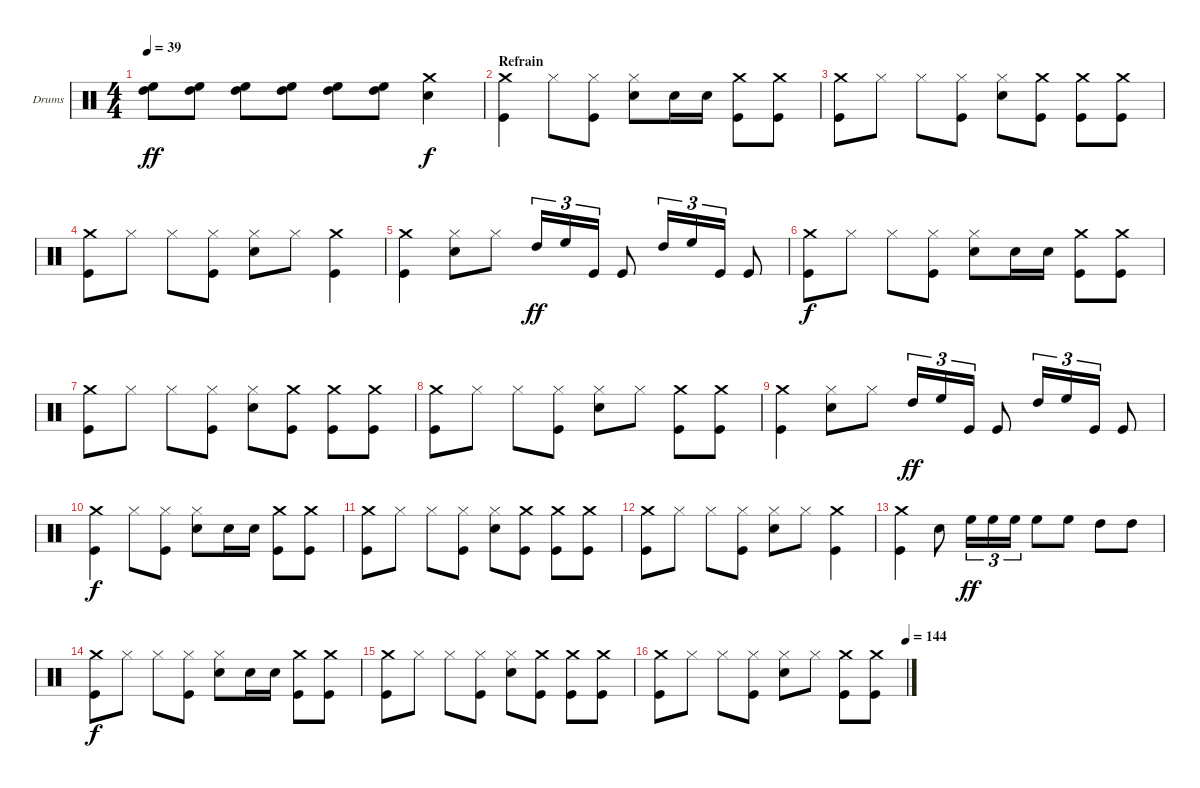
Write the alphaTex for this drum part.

\bracketExtendMode groupsimilarinstruments
\firstSystemTrackNameOrientation horizontal
\otherSystemsTrackNameOrientation horizontal
\track ("Drumkit" "Drums") {instrument percussion}
\staff {score}
\articulation defaults
\ts (4 4)
\tempo 39
\clef neutral
\ks c
("High Tom (hit)" "High Floor Tom (hit)").8{dy ff} ("High Tom (hit)" "High Floor Tom (hit)").8 ("High Tom (hit)" "High Floor Tom (hit)").8 ("High Tom (hit)" "High Floor Tom (hit)").8 ("High Tom (hit)" "High Floor Tom (hit)").8 ("High Tom (hit)" "High Floor Tom (hit)").8 ("Crash medium (hit)" "Snare (hit) 2").4{dy f} |
\section ("" "Refrain")
("Crash medium (hit)" "Kick (hit)").4 "Hi-Hat (closed)".8 ("Hi-Hat (closed)" "Kick (hit)").8 ("Hi-Hat (closed)" "Snare (hit) 2").8 "Snare (hit) 2".16 "Snare (hit) 2".16 ("Crash medium (hit)" "Kick (hit)").8 ("Crash medium (hit)" "Kick (hit)").8 |
("Crash medium (hit)" "Kick (hit)").8 "Hi-Hat (closed)".8 "Hi-Hat (closed)".8 ("Hi-Hat (closed)" "Kick (hit)").8 ("Hi-Hat (closed)" "Snare (hit) 2").8 ("Crash medium (hit)" "Kick (hit)").8 ("Crash medium (hit)" "Kick (hit)").8 ("Crash medium (hit)" "Kick (hit)").8 |
("Crash medium (hit)" "Kick (hit)").8 "Hi-Hat (closed)".8 "Hi-Hat (closed)".8 ("Hi-Hat (closed)" "Kick (hit)").8 ("Hi-Hat (closed)" "Snare (hit) 2").8 "Hi-Hat (closed)".8 ("Crash medium (hit)" "Kick (hit)").4 |
("Crash medium (hit)" "Kick (hit)").4 ("Hi-Hat (closed)" "Snare (hit) 2").8 "Hi-Hat (closed)".8 "High Tom (hit)".16{tu (3 2) dy ff} "High Floor Tom (hit)".16{tu (3 2)} "Kick (hit)".16{tu (3 2)} "Kick (hit)".8 "High Tom (hit)".16{tu (3 2)} "High Floor Tom (hit)".16{tu (3 2)} "Kick (hit)".16{tu (3 2)} "Kick (hit)".8 |
("Crash medium (hit)" "Kick (hit)").8{dy f} "Hi-Hat (closed)".8 "Hi-Hat (closed)".8 ("Hi-Hat (closed)" "Kick (hit)").8 ("Hi-Hat (closed)" "Snare (hit) 2").8 "Snare (hit) 2".16 "Snare (hit) 2".16 ("Crash medium (hit)" "Kick (hit)").8 ("Crash medium (hit)" "Kick (hit)").8 |
("Crash medium (hit)" "Kick (hit)").8 "Hi-Hat (closed)".8 "Hi-Hat (closed)".8 ("Hi-Hat (closed)" "Kick (hit)").8 ("Hi-Hat (closed)" "Snare (hit) 2").8 ("Crash medium (hit)" "Kick (hit)").8 ("Crash medium (hit)" "Kick (hit)").8 ("Crash medium (hit)" "Kick (hit)").8 |
("Crash medium (hit)" "Kick (hit)").8 "Hi-Hat (closed)".8 "Hi-Hat (closed)".8 ("Hi-Hat (closed)" "Kick (hit)").8 ("Hi-Hat (closed)" "Snare (hit) 2").8 "Hi-Hat (closed)".8 ("Crash medium (hit)" "Kick (hit)").8 ("Crash medium (hit)" "Kick (hit)").8 |
("Crash medium (hit)" "Kick (hit)").4 ("Hi-Hat (closed)" "Snare (hit) 2").8 "Hi-Hat (closed)".8 "High Tom (hit)".16{tu (3 2) dy ff} "High Floor Tom (hit)".16{tu (3 2)} "Kick (hit)".16{tu (3 2)} "Kick (hit)".8 "High Tom (hit)".16{tu (3 2)} "High Floor Tom (hit)".16{tu (3 2)} "Kick (hit)".16{tu (3 2)} "Kick (hit)".8 |
("Crash medium (hit)" "Kick (hit)").4{dy f} "Hi-Hat (closed)".8 ("Hi-Hat (closed)" "Kick (hit)").8 ("Hi-Hat (closed)" "Snare (hit) 2").8 "Snare (hit) 2".16 "Snare (hit) 2".16 ("Crash medium (hit)" "Kick (hit)").8 ("Crash medium (hit)" "Kick (hit)").8 |
("Crash medium (hit)" "Kick (hit)").8 "Hi-Hat (closed)".8 "Hi-Hat (closed)".8 ("Hi-Hat (closed)" "Kick (hit)").8 ("Hi-Hat (closed)" "Snare (hit) 2").8 ("Crash medium (hit)" "Kick (hit)").8 ("Crash medium (hit)" "Kick (hit)").8 ("Crash medium (hit)" "Kick (hit)").8 |
("Crash medium (hit)" "Kick (hit)").8 "Hi-Hat (closed)".8 "Hi-Hat (closed)".8 ("Hi-Hat (closed)" "Kick (hit)").8 ("Hi-Hat (closed)" "Snare (hit) 2").8 "Hi-Hat (closed)".8 ("Crash medium (hit)" "Kick (hit)").4 |
("Crash medium (hit)" "Kick (hit)").4 "Snare (hit) 2".8 "High Floor Tom (hit)".16{tu (3 2) dy ff} "High Floor Tom (hit)".16{tu (3 2)} "High Floor Tom (hit)".16{tu (3 2)} "High Floor Tom (hit)".8 "High Floor Tom (hit)".8 "High Tom (hit)".8 "High Tom (hit)".8 |
("Crash medium (hit)" "Kick (hit)").8{dy f} "Hi-Hat (closed)".8 "Hi-Hat (closed)".8 ("Hi-Hat (closed)" "Kick (hit)").8 ("Hi-Hat (closed)" "Snare (hit) 2").8 "Snare (hit) 2".16 "Snare (hit) 2".16 ("Crash medium (hit)" "Kick (hit)").8 ("Crash medium (hit)" "Kick (hit)").8 |
("Crash medium (hit)" "Kick (hit)").8 "Hi-Hat (closed)".8 "Hi-Hat (closed)".8 ("Hi-Hat (closed)" "Kick (hit)").8 ("Hi-Hat (closed)" "Snare (hit) 2").8 ("Crash medium (hit)" "Kick (hit)").8 ("Crash medium (hit)" "Kick (hit)").8 ("Crash medium (hit)" "Kick (hit)").8 |
\tempo (144 1)
("Crash medium (hit)" "Kick (hit)").8 "Hi-Hat (closed)".8 "Hi-Hat (closed)".8 ("Hi-Hat (closed)" "Kick (hit)").8 ("Hi-Hat (closed)" "Snare (hit) 2").8 "Hi-Hat (closed)".8 ("Crash medium (hit)" "Kick (hit)").8 ("Crash medium (hit)" "Kick (hit)").8
